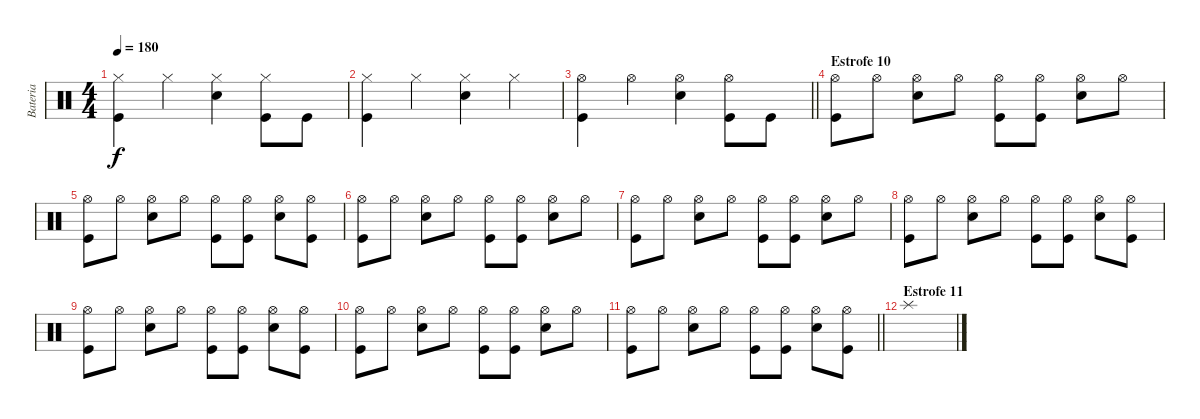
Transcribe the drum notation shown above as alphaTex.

\track ("Bateria" "Bateria") {instrument percussion}
\staff {score}
\articulation defaults
\ts (4 4)
\tempo 180
\clef neutral
\ks c
("Hi-Hat (closed)" "Kick (hit)").4{dy f} "Hi-Hat (closed)".4 ("Hi-Hat (closed)" "Snare (hit) 2").4 ("Hi-Hat (closed)" "Kick (hit)").8 "Kick (hit)".8 |
("Hi-Hat (closed)" "Kick (hit)").4 "Hi-Hat (closed)".4 ("Hi-Hat (closed)" "Snare (hit) 2").4 "Hi-Hat (closed)".4 |
\barLineRight lightlight
("Hi-Hat (open)" "Kick (hit)").4 "Hi-Hat (open)".4 ("Hi-Hat (open)" "Snare (hit) 2").4 ("Hi-Hat (open)" "Kick (hit)").8 "Kick (hit)".8 |
\section ("" "Estrofe 10")
("Hi-Hat (open)" "Kick (hit)").8 "Hi-Hat (open)".8 ("Hi-Hat (open)" "Snare (hit) 2").8 "Hi-Hat (open)".8 ("Hi-Hat (open)" "Kick (hit)").8 ("Hi-Hat (open)" "Kick (hit)").8 ("Hi-Hat (open)" "Snare (hit) 2").8 "Hi-Hat (open)".8 |
("Hi-Hat (open)" "Kick (hit)").8 "Hi-Hat (open)".8 ("Hi-Hat (open)" "Snare (hit) 2").8 "Hi-Hat (open)".8 ("Hi-Hat (open)" "Kick (hit)").8 ("Hi-Hat (open)" "Kick (hit)").8 ("Hi-Hat (open)" "Snare (hit) 2").8 ("Hi-Hat (open)" "Kick (hit)").8 |
("Hi-Hat (open)" "Kick (hit)").8 "Hi-Hat (open)".8 ("Hi-Hat (open)" "Snare (hit) 2").8 "Hi-Hat (open)".8 ("Hi-Hat (open)" "Kick (hit)").8 ("Hi-Hat (open)" "Kick (hit)").8 ("Hi-Hat (open)" "Snare (hit) 2").8 "Hi-Hat (open)".8 |
("Hi-Hat (open)" "Kick (hit)").8 "Hi-Hat (open)".8 ("Hi-Hat (open)" "Snare (hit) 2").8 "Hi-Hat (open)".8 ("Hi-Hat (open)" "Kick (hit)").8 ("Hi-Hat (open)" "Kick (hit)").8 ("Hi-Hat (open)" "Snare (hit) 2").8 "Hi-Hat (open)".8 |
("Hi-Hat (open)" "Kick (hit)").8 "Hi-Hat (open)".8 ("Hi-Hat (open)" "Snare (hit) 2").8 "Hi-Hat (open)".8 ("Hi-Hat (open)" "Kick (hit)").8 ("Hi-Hat (open)" "Kick (hit)").8 ("Hi-Hat (open)" "Snare (hit) 2").8 ("Hi-Hat (open)" "Kick (hit)").8 |
("Hi-Hat (open)" "Kick (hit)").8 "Hi-Hat (open)".8 ("Hi-Hat (open)" "Snare (hit) 2").8 "Hi-Hat (open)".8 ("Hi-Hat (open)" "Kick (hit)").8 ("Hi-Hat (open)" "Kick (hit)").8 ("Hi-Hat (open)" "Snare (hit) 2").8 ("Hi-Hat (open)" "Kick (hit)").8 |
("Hi-Hat (open)" "Kick (hit)").8 "Hi-Hat (open)".8 ("Hi-Hat (open)" "Snare (hit) 2").8 "Hi-Hat (open)".8 ("Hi-Hat (open)" "Kick (hit)").8 ("Hi-Hat (open)" "Kick (hit)").8 ("Hi-Hat (open)" "Snare (hit) 2").8 "Hi-Hat (open)".8 |
\barLineRight lightlight
("Hi-Hat (open)" "Kick (hit)").8 "Hi-Hat (open)".8 ("Hi-Hat (open)" "Snare (hit) 2").8 "Hi-Hat (open)".8 ("Hi-Hat (open)" "Kick (hit)").8 ("Hi-Hat (open)" "Kick (hit)").8 ("Hi-Hat (open)" "Snare (hit) 2").8 ("Hi-Hat (open)" "Kick (hit)").8 |
\section ("" "Estrofe 11")
"Splash (hit)".1
